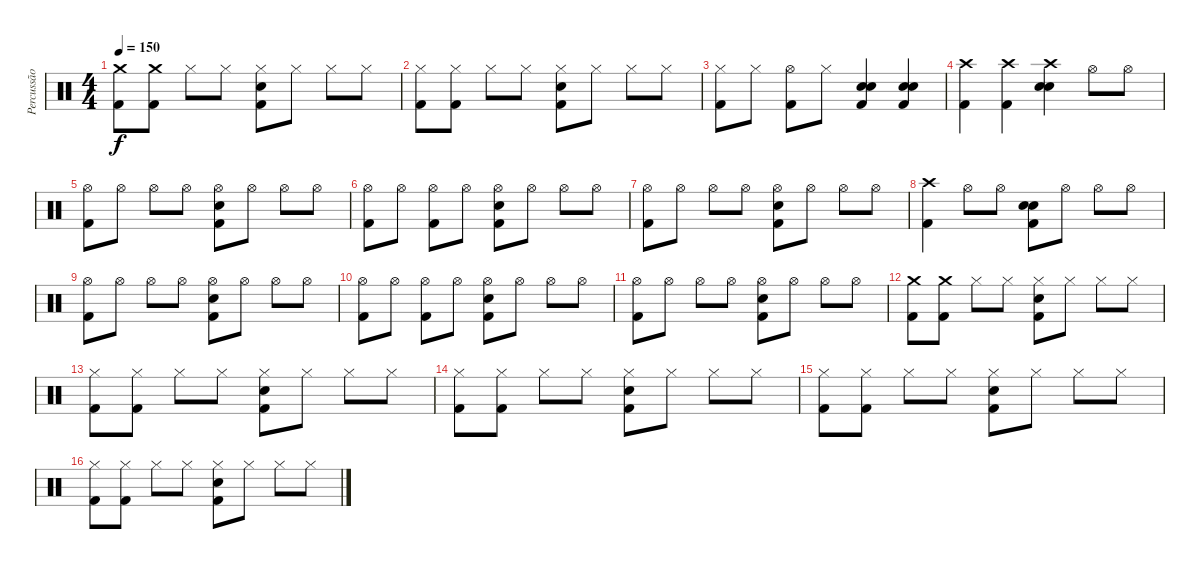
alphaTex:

\track ("Percussão" "Percussão") {instrument percussion}
\staff {score}
\articulation defaults
\ts (4 4)
\tempo 150
\clef neutral
\ks c
("Crash medium (hit)" "Kick (hit) 2").8{dy f} ("Crash medium (hit)" "Kick (hit) 2").8 "Hi-Hat (closed)".8 "Hi-Hat (closed)".8 ("Hi-Hat (closed)" "Snare (hit) 2" "Kick (hit) 2").8 "Hi-Hat (closed)".8 "Hi-Hat (closed)".8 "Hi-Hat (closed)".8 |
("Hi-Hat (closed)" "Kick (hit) 2").8 ("Hi-Hat (closed)" "Kick (hit) 2").8 "Hi-Hat (closed)".8 "Hi-Hat (closed)".8 ("Hi-Hat (closed)" "Snare (hit) 2" "Kick (hit) 2").8 "Hi-Hat (closed)".8 "Hi-Hat (closed)".8 "Hi-Hat (closed)".8 |
("Hi-Hat (closed)" "Kick (hit) 2").8 "Hi-Hat (closed)".8 ("Hi-Hat (open)" "Kick (hit) 2").8 "Hi-Hat (closed)".8 ("Snare (hit) 2" "Snare (hit) 2" "Kick (hit) 2").4{bd 120} ("Snare (hit) 2" "Snare (hit) 2" "Kick (hit) 2").4 |
("Crash high (hit)" "Kick (hit) 2").4 ("Crash high (hit)" "Kick (hit) 2").4 ("Crash high (hit)" "Snare (hit) 2" "Snare (hit) 2").4 "Hi-Hat (open)".8 "Hi-Hat (open)".8 |
("Hi-Hat (open)" "Kick (hit) 2").8 "Hi-Hat (open)".8 "Hi-Hat (open)".8 "Hi-Hat (open)".8 ("Hi-Hat (open)" "Snare (hit) 2" "Kick (hit) 2").8 "Hi-Hat (open)".8 "Hi-Hat (open)".8 "Hi-Hat (open)".8 |
("Hi-Hat (open)" "Kick (hit) 2").8 "Hi-Hat (open)".8 ("Hi-Hat (open)" "Kick (hit) 2").8 "Hi-Hat (open)".8 ("Hi-Hat (open)" "Snare (hit) 2" "Kick (hit) 2").8 "Hi-Hat (open)".8 "Hi-Hat (open)".8 "Hi-Hat (open)".8 |
("Hi-Hat (open)" "Kick (hit) 2").8 "Hi-Hat (open)".8 "Hi-Hat (open)".8 "Hi-Hat (open)".8 ("Hi-Hat (open)" "Snare (hit) 2" "Kick (hit) 2").8 "Hi-Hat (open)".8 "Hi-Hat (open)".8 "Hi-Hat (open)".8 |
("Crash high (hit)" "Kick (hit) 2").4 "Hi-Hat (open)".8 "Hi-Hat (open)".8 ("Kick (hit) 2" "Snare (hit) 2" "Snare (hit) 2").8 "Hi-Hat (open)".8 "Hi-Hat (open)".8 "Hi-Hat (open)".8 |
("Hi-Hat (open)" "Kick (hit) 2").8 "Hi-Hat (open)".8 "Hi-Hat (open)".8 "Hi-Hat (open)".8 ("Hi-Hat (open)" "Snare (hit) 2" "Kick (hit) 2").8 "Hi-Hat (open)".8 "Hi-Hat (open)".8 "Hi-Hat (open)".8 |
("Hi-Hat (open)" "Kick (hit) 2").8 "Hi-Hat (open)".8 ("Hi-Hat (open)" "Kick (hit) 2").8 "Hi-Hat (open)".8 ("Hi-Hat (open)" "Snare (hit) 2" "Kick (hit) 2").8 "Hi-Hat (open)".8 "Hi-Hat (open)".8 "Hi-Hat (open)".8 |
("Hi-Hat (open)" "Kick (hit) 2").8 "Hi-Hat (open)".8 "Hi-Hat (open)".8 "Hi-Hat (open)".8 ("Hi-Hat (open)" "Snare (hit) 2" "Kick (hit) 2").8 "Hi-Hat (open)".8 "Hi-Hat (open)".8 "Hi-Hat (open)".8 |
("Crash medium (hit)" "Kick (hit) 2").8 ("Crash medium (hit)" "Kick (hit) 2").8 "Hi-Hat (closed)".8 "Hi-Hat (closed)".8 ("Hi-Hat (closed)" "Snare (hit) 2" "Kick (hit) 2").8 "Hi-Hat (closed)".8 "Hi-Hat (closed)".8 "Hi-Hat (closed)".8 |
("Hi-Hat (closed)" "Kick (hit) 2").8 ("Hi-Hat (closed)" "Kick (hit) 2").8 "Hi-Hat (closed)".8 "Hi-Hat (closed)".8 ("Hi-Hat (closed)" "Snare (hit) 2" "Kick (hit) 2").8 "Hi-Hat (closed)".8 "Hi-Hat (closed)".8 "Hi-Hat (closed)".8 |
("Hi-Hat (closed)" "Kick (hit) 2").8 ("Hi-Hat (closed)" "Kick (hit) 2").8 "Hi-Hat (closed)".8 "Hi-Hat (closed)".8 ("Hi-Hat (closed)" "Snare (hit) 2" "Kick (hit) 2").8 "Hi-Hat (closed)".8 "Hi-Hat (closed)".8 "Hi-Hat (closed)".8 |
("Hi-Hat (closed)" "Kick (hit) 2").8 ("Hi-Hat (closed)" "Kick (hit) 2").8 "Hi-Hat (closed)".8 "Hi-Hat (closed)".8 ("Hi-Hat (closed)" "Snare (hit) 2" "Kick (hit) 2").8 "Hi-Hat (closed)".8 "Hi-Hat (closed)".8 "Hi-Hat (closed)".8 |
("Hi-Hat (closed)" "Kick (hit) 2").8 ("Hi-Hat (closed)" "Kick (hit) 2").8 "Hi-Hat (closed)".8 "Hi-Hat (closed)".8 ("Hi-Hat (closed)" "Snare (hit) 2" "Kick (hit) 2").8 "Hi-Hat (closed)".8 "Hi-Hat (closed)".8 "Hi-Hat (closed)".8
